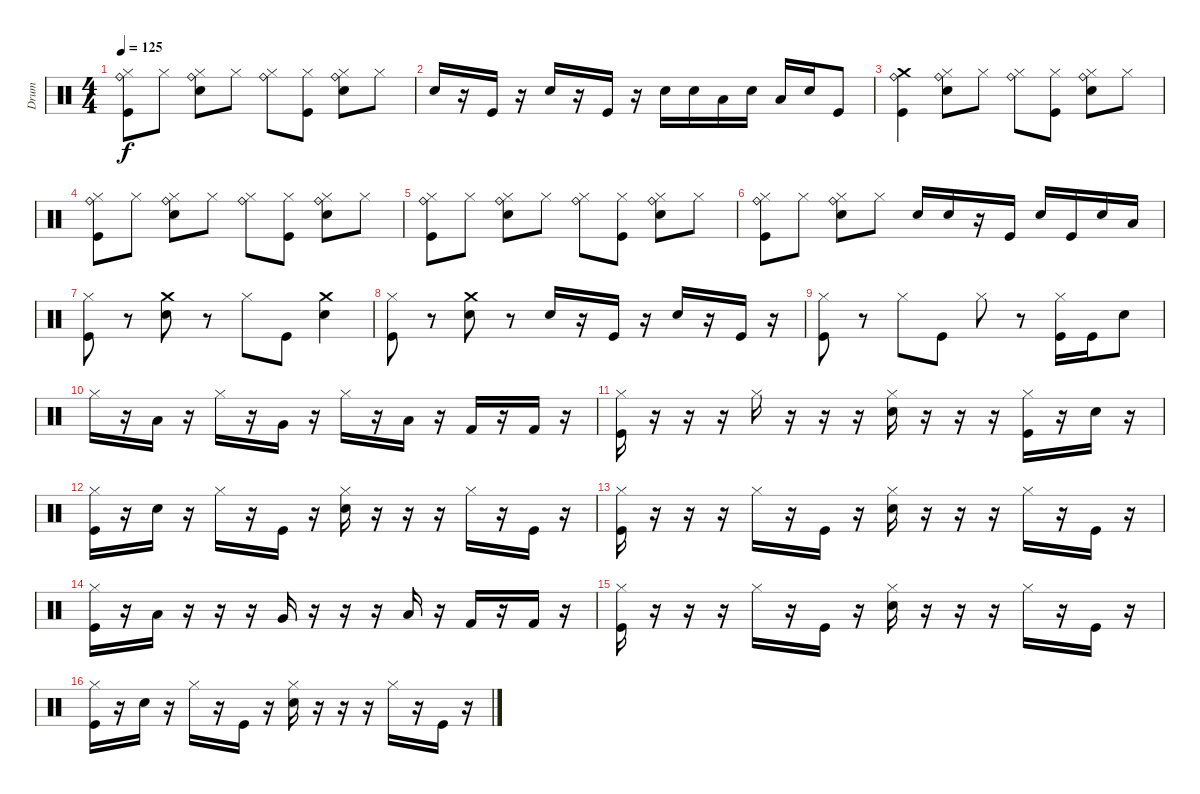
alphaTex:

\track ("Drum" "Drum") {instrument percussion}
\staff {score}
\articulation defaults
\ts (4 4)
\tempo 125
\clef neutral
\ks c
("Kick (hit)" "Hi-Hat (closed)" "Ride (bell)").8{dy f} "Hi-Hat (closed)".8 ("Electric Snare (hit)" "Hi-Hat (closed)" "Ride (bell)").8 "Hi-Hat (closed)".8 ("Hi-Hat (closed)" "Ride (bell)").8 ("Kick (hit)" "Hi-Hat (closed)").8 ("Electric Snare (hit)" "Hi-Hat (closed)" "Ride (bell)").8 "Hi-Hat (closed)".8 |
"Electric Snare (hit)".16 r.16 "Kick (hit)".16 r.16 "Electric Snare (hit)".16 r.16 "Kick (hit)".16 r.16 "Electric Snare (hit)".16 "Electric Snare (hit)".16 "Low Tom (hit)".16 "Electric Snare (hit)".16 "Low Tom (hit)".16 "Electric Snare (hit)".16 "Kick (hit)".8 |
("Kick (hit)" "Crash medium (hit)" "Ride (bell)").4 ("Electric Snare (hit)" "Hi-Hat (closed)" "Ride (bell)").8 "Hi-Hat (closed)".8 ("Hi-Hat (closed)" "Ride (bell)").8 ("Kick (hit)" "Hi-Hat (closed)").8 ("Electric Snare (hit)" "Hi-Hat (closed)" "Ride (bell)").8 "Hi-Hat (closed)".8 |
("Kick (hit)" "Hi-Hat (closed)" "Ride (bell)").8 "Hi-Hat (closed)".8 ("Electric Snare (hit)" "Hi-Hat (closed)" "Ride (bell)").8 "Hi-Hat (closed)".8 ("Hi-Hat (closed)" "Ride (bell)").8 ("Kick (hit)" "Hi-Hat (closed)").8 ("Electric Snare (hit)" "Hi-Hat (closed)" "Ride (bell)").8 "Hi-Hat (closed)".8 |
("Kick (hit)" "Hi-Hat (closed)" "Ride (bell)").8 "Hi-Hat (closed)".8 ("Electric Snare (hit)" "Hi-Hat (closed)" "Ride (bell)").8 "Hi-Hat (closed)".8 ("Hi-Hat (closed)" "Ride (bell)").8 ("Kick (hit)" "Hi-Hat (closed)").8 ("Electric Snare (hit)" "Hi-Hat (closed)" "Ride (bell)").8 "Hi-Hat (closed)".8 |
("Kick (hit)" "Hi-Hat (closed)" "Ride (bell)").8 "Hi-Hat (closed)".8 ("Electric Snare (hit)" "Hi-Hat (closed)" "Ride (bell)").8 "Hi-Hat (closed)".8 "Electric Snare (hit)".16 "Electric Snare (hit)".16 r.16 "Kick (hit)".16 "Electric Snare (hit)".16 "Kick (hit)".16 "Electric Snare (hit)".16 "Low Tom (hit)".16 |
("Kick (hit)" "Hi-Hat (closed)").8 r.8 ("Electric Snare (hit)" "Crash medium (hit)").8 r.8 "Hi-Hat (closed)".8 "Kick (hit)".8 ("Electric Snare (hit)" "Crash medium (hit)").4 |
("Kick (hit)" "Hi-Hat (closed)").8 r.8 ("Electric Snare (hit)" "Crash medium (hit)").8 r.8 "Electric Snare (hit)".16 r.16 "Kick (hit)".16 r.16 "Electric Snare (hit)".16 r.16 "Kick (hit)".16 r.16 |
("Kick (hit)" "Hi-Hat (closed)").8 r.8 "Hi-Hat (closed)".8 "Kick (hit)".8 "Hi-Hat (closed)".8 r.8 ("Kick (hit)" "Hi-Hat (closed)").16 "Kick (hit)".16 "Electric Snare (hit)".8 |
"Hi-Hat (closed)".16 r.16 "Low Tom (hit)".16 r.16 "Hi-Hat (closed)".16 r.16 "Very Low Tom (hit)".16 r.16 "Hi-Hat (closed)".16 r.16 "Low Floor Tom (hit)".16 r.16 "Kick (hit) 2".16 r.16 "Kick (hit) 2".16 r.16 |
("Kick (hit)" "Hi-Hat (closed)").16 r.16 r.16 r.16 "Hi-Hat (closed)".16 r.16 r.16 r.16 ("Electric Snare (hit)" "Hi-Hat (closed)").16 r.16 r.16 r.16 ("Kick (hit)" "Hi-Hat (closed)").16 r.16 "Electric Snare (hit)".16 r.16 |
("Kick (hit)" "Hi-Hat (closed)").16 r.16 "Electric Snare (hit)".16 r.16 "Hi-Hat (closed)".16 r.16 "Kick (hit)".16 r.16 ("Electric Snare (hit)" "Hi-Hat (closed)").16 r.16 r.16 r.16 "Hi-Hat (closed)".16 r.16 "Kick (hit)".16 r.16 |
("Kick (hit)" "Hi-Hat (closed)").16 r.16 r.16 r.16 "Hi-Hat (closed)".16 r.16 "Kick (hit)".16 r.16 ("Electric Snare (hit)" "Hi-Hat (closed)").16 r.16 r.16 r.16 "Hi-Hat (closed)".16 r.16 "Kick (hit)".16 r.16 |
("Kick (hit)" "Hi-Hat (closed)").16 r.16 "Low Tom (hit)".16 r.16 r.16 r.16 "Very Low Tom (hit)".16 r.16 r.16 r.16 "Low Floor Tom (hit)".16 r.16 "Kick (hit) 2".16 r.16 "Kick (hit) 2".16 r.16 |
("Kick (hit)" "Hi-Hat (closed)").16 r.16 r.16 r.16 "Hi-Hat (closed)".16 r.16 "Kick (hit)".16 r.16 ("Electric Snare (hit)" "Hi-Hat (closed)").16 r.16 r.16 r.16 "Hi-Hat (closed)".16 r.16 "Kick (hit)".16 r.16 |
("Kick (hit)" "Hi-Hat (closed)").16 r.16 "Electric Snare (hit)".16 r.16 "Hi-Hat (closed)".16 r.16 "Kick (hit)".16 r.16 ("Electric Snare (hit)" "Hi-Hat (closed)").16 r.16 r.16 r.16 "Hi-Hat (closed)".16 r.16 "Kick (hit)".16 r.16
